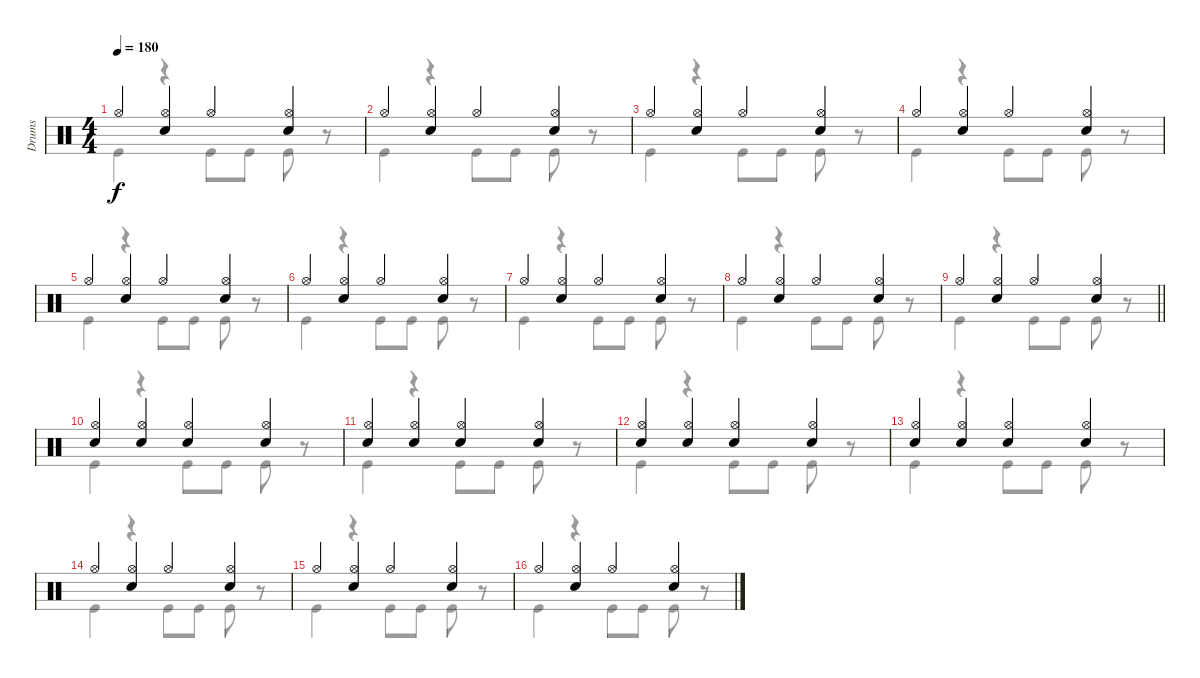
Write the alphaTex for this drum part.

\track ("Drums" "Drums") {instrument percussion}
\staff {score}
\articulation defaults
\voice
\ts (4 4)
\tempo 180
\clef neutral
\ks c "Hi-Hat (open)".4{dy f}
("Hi-Hat (open)" "Snare (hit) 2").4 "Hi-Hat (open)".4 ("Hi-Hat (open)" "Snare (hit) 2").4 |
"Hi-Hat (open)".4 ("Hi-Hat (open)" "Snare (hit) 2").4 "Hi-Hat (open)".4 ("Hi-Hat (open)" "Snare (hit) 2").4 |
"Hi-Hat (open)".4 ("Hi-Hat (open)" "Snare (hit) 2").4 "Hi-Hat (open)".4 ("Hi-Hat (open)" "Snare (hit) 2").4 |
"Hi-Hat (open)".4 ("Hi-Hat (open)" "Snare (hit) 2").4 "Hi-Hat (open)".4 ("Hi-Hat (open)" "Snare (hit) 2").4 |
"Hi-Hat (open)".4 ("Hi-Hat (open)" "Snare (hit) 2").4 "Hi-Hat (open)".4 ("Hi-Hat (open)" "Snare (hit) 2").4 |
"Hi-Hat (open)".4 ("Hi-Hat (open)" "Snare (hit) 2").4 "Hi-Hat (open)".4 ("Hi-Hat (open)" "Snare (hit) 2").4 |
"Hi-Hat (open)".4 ("Hi-Hat (open)" "Snare (hit) 2").4 "Hi-Hat (open)".4 ("Hi-Hat (open)" "Snare (hit) 2").4 |
"Hi-Hat (open)".4 ("Hi-Hat (open)" "Snare (hit) 2").4 "Hi-Hat (open)".4 ("Hi-Hat (open)" "Snare (hit) 2").4 |
\barLineRight lightlight "Hi-Hat (open)".4
("Hi-Hat (open)" "Snare (hit) 2").4 "Hi-Hat (open)".4 ("Hi-Hat (open)" "Snare (hit) 2").4 |
("Hi-Hat (open)" "Snare (hit) 2").4 ("Hi-Hat (open)" "Snare (hit) 2").4 ("Hi-Hat (open)" "Snare (hit) 2").4 ("Hi-Hat (open)" "Snare (hit) 2").4 |
("Hi-Hat (open)" "Snare (hit) 2").4 ("Hi-Hat (open)" "Snare (hit) 2").4 ("Hi-Hat (open)" "Snare (hit) 2").4 ("Hi-Hat (open)" "Snare (hit) 2").4 |
("Hi-Hat (open)" "Snare (hit) 2").4 ("Hi-Hat (open)" "Snare (hit) 2").4 ("Hi-Hat (open)" "Snare (hit) 2").4 ("Hi-Hat (open)" "Snare (hit) 2").4 |
("Hi-Hat (open)" "Snare (hit) 2").4 ("Hi-Hat (open)" "Snare (hit) 2").4 ("Hi-Hat (open)" "Snare (hit) 2").4 ("Hi-Hat (open)" "Snare (hit) 2").4 |
"Hi-Hat (open)".4 ("Hi-Hat (open)" "Snare (hit) 2").4 "Hi-Hat (open)".4 ("Hi-Hat (open)" "Snare (hit) 2").4 |
"Hi-Hat (open)".4 ("Hi-Hat (open)" "Snare (hit) 2").4 "Hi-Hat (open)".4 ("Hi-Hat (open)" "Snare (hit) 2").4 |
"Hi-Hat (open)".4 ("Hi-Hat (open)" "Snare (hit) 2").4 "Hi-Hat (open)".4 ("Hi-Hat (open)" "Snare (hit) 2").4
\voice
\clef neutral
\ottava regular
\simile none
\ks c "Kick (hit)".4{dy f}
r.4 "Kick (hit)".8 "Kick (hit)".8 "Kick (hit)".8 r.8 |
"Kick (hit)".4 r.4 "Kick (hit)".8 "Kick (hit)".8 "Kick (hit)".8 r.8 |
"Kick (hit)".4 r.4 "Kick (hit)".8 "Kick (hit)".8 "Kick (hit)".8 r.8 |
"Kick (hit)".4 r.4 "Kick (hit)".8 "Kick (hit)".8 "Kick (hit)".8 r.8 |
"Kick (hit)".4 r.4 "Kick (hit)".8 "Kick (hit)".8 "Kick (hit)".8 r.8 |
"Kick (hit)".4 r.4 "Kick (hit)".8 "Kick (hit)".8 "Kick (hit)".8 r.8 |
"Kick (hit)".4 r.4 "Kick (hit)".8 "Kick (hit)".8 "Kick (hit)".8 r.8 |
"Kick (hit)".4 r.4 "Kick (hit)".8 "Kick (hit)".8 "Kick (hit)".8 r.8 |
\barLineRight lightlight "Kick (hit)".4
r.4 "Kick (hit)".8 "Kick (hit)".8 "Kick (hit)".8 r.8 |
"Kick (hit)".4 r.4 "Kick (hit)".8 "Kick (hit)".8 "Kick (hit)".8 r.8 |
"Kick (hit)".4 r.4 "Kick (hit)".8 "Kick (hit)".8 "Kick (hit)".8 r.8 |
"Kick (hit)".4 r.4 "Kick (hit)".8 "Kick (hit)".8 "Kick (hit)".8 r.8 |
"Kick (hit)".4 r.4 "Kick (hit)".8 "Kick (hit)".8 "Kick (hit)".8 r.8 |
"Kick (hit)".4 r.4 "Kick (hit)".8 "Kick (hit)".8 "Kick (hit)".8 r.8 |
"Kick (hit)".4 r.4 "Kick (hit)".8 "Kick (hit)".8 "Kick (hit)".8 r.8 |
"Kick (hit)".4 r.4 "Kick (hit)".8 "Kick (hit)".8 "Kick (hit)".8 r.8
